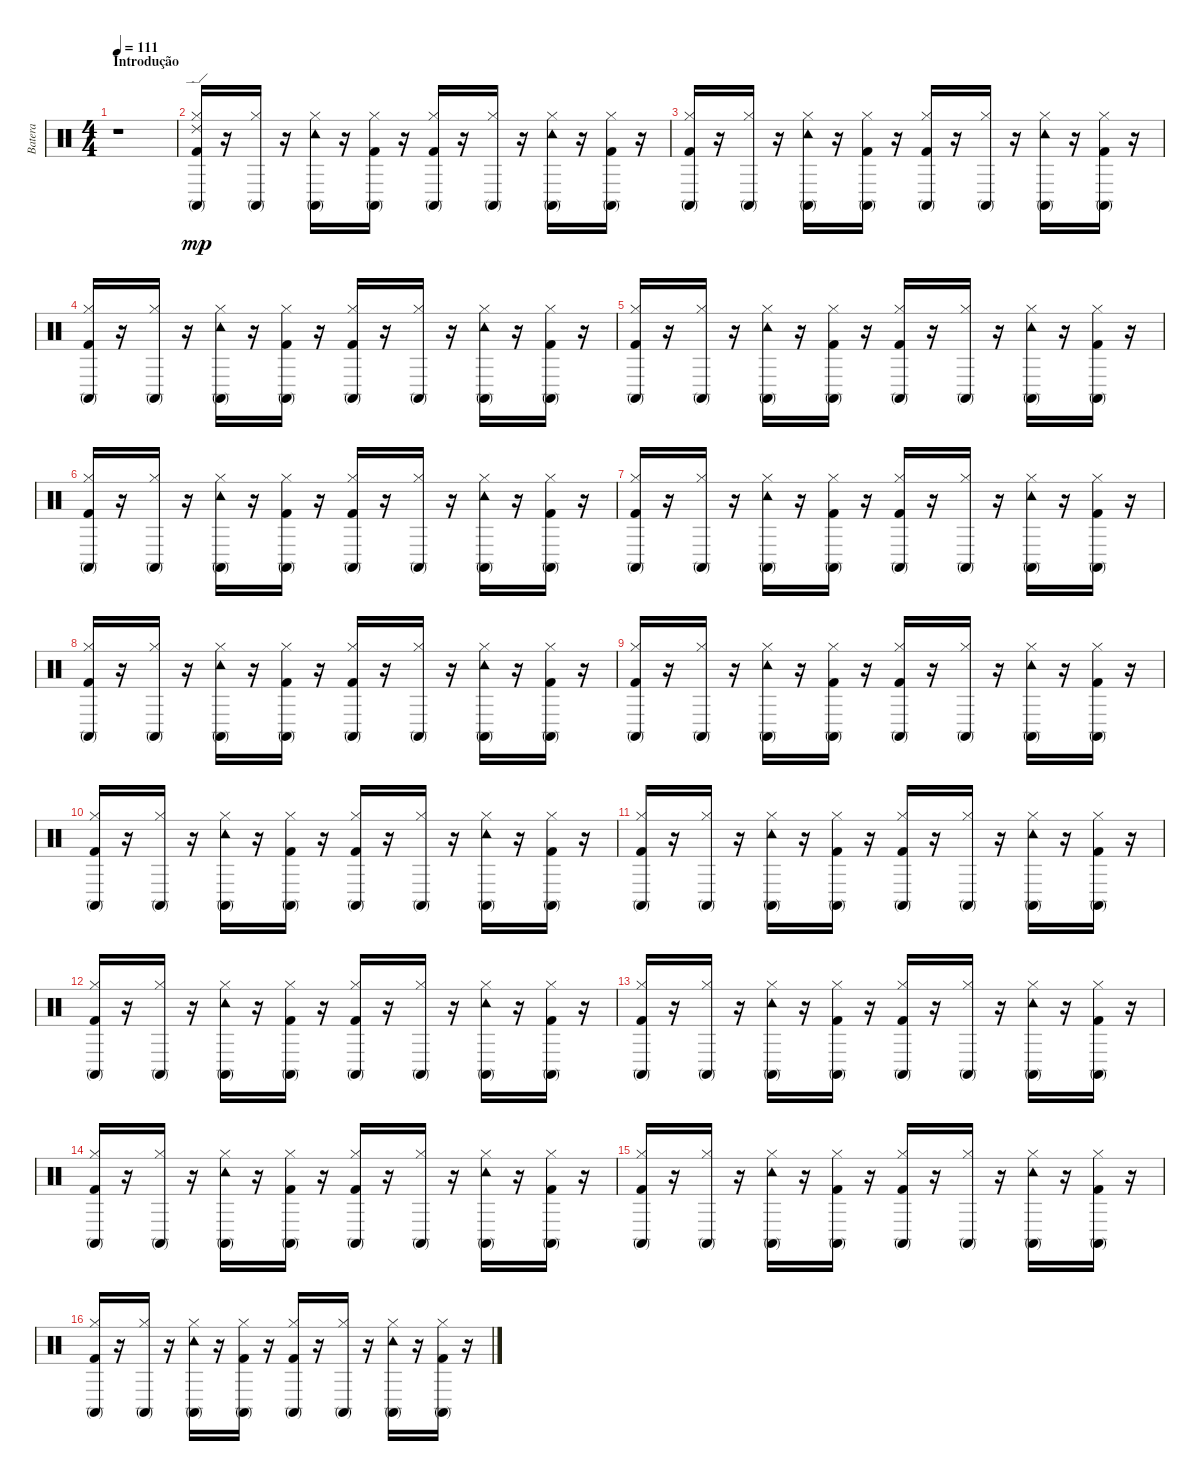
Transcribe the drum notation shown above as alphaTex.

\track ("Batera" "Batera") {instrument percussion}
\staff {score}
\articulation defaults
\ts (4 4)
\section ("" "Introdução")
\tempo 111
\clef neutral
\ks c
r.1{dy mp} |
("Hi-Hat (closed)" "Ride (edge) 2" "Conga high (mute)" "Kick (hit) 2").16 r.16 ("Hi-Hat (closed)" "Conga high (mute)").16 r.16 ("Hi-Hat (closed)" "Conga high (mute)" "Tambourine (hit)").16 r.16 ("Hi-Hat (closed)" "Conga high (mute)" "Kick (hit) 2").16 r.16 ("Hi-Hat (closed)" "Conga high (mute)" "Kick (hit) 2").16 r.16 ("Hi-Hat (closed)" "Conga high (mute)").16 r.16 ("Hi-Hat (closed)" "Conga high (mute)" "Tambourine (hit)").16 r.16 ("Hi-Hat (closed)" "Conga high (mute)" "Kick (hit) 2").16 r.16 |
("Hi-Hat (closed)" "Conga high (mute)" "Kick (hit) 2").16 r.16 ("Hi-Hat (closed)" "Conga high (mute)").16 r.16 ("Hi-Hat (closed)" "Conga high (mute)" "Tambourine (hit)").16 r.16 ("Hi-Hat (closed)" "Conga high (mute)" "Kick (hit) 2").16 r.16 ("Hi-Hat (closed)" "Conga high (mute)" "Kick (hit) 2").16 r.16 ("Hi-Hat (closed)" "Conga high (mute)").16 r.16 ("Hi-Hat (closed)" "Conga high (mute)" "Tambourine (hit)").16 r.16 ("Hi-Hat (closed)" "Conga high (mute)" "Kick (hit) 2").16 r.16 |
("Hi-Hat (closed)" "Conga high (mute)" "Kick (hit) 2").16 r.16 ("Hi-Hat (closed)" "Conga high (mute)").16 r.16 ("Hi-Hat (closed)" "Conga high (mute)" "Tambourine (hit)").16 r.16 ("Hi-Hat (closed)" "Conga high (mute)" "Kick (hit) 2").16 r.16 ("Hi-Hat (closed)" "Conga high (mute)" "Kick (hit) 2").16 r.16 ("Hi-Hat (closed)" "Conga high (mute)").16 r.16 ("Hi-Hat (closed)" "Conga high (mute)" "Tambourine (hit)").16 r.16 ("Hi-Hat (closed)" "Conga high (mute)" "Kick (hit) 2").16 r.16 |
("Hi-Hat (closed)" "Conga high (mute)" "Kick (hit) 2").16 r.16 ("Hi-Hat (closed)" "Conga high (mute)").16 r.16 ("Hi-Hat (closed)" "Conga high (mute)" "Tambourine (hit)").16 r.16 ("Hi-Hat (closed)" "Conga high (mute)" "Kick (hit) 2").16 r.16 ("Hi-Hat (closed)" "Conga high (mute)" "Kick (hit) 2").16 r.16 ("Hi-Hat (closed)" "Conga high (mute)").16 r.16 ("Hi-Hat (closed)" "Conga high (mute)" "Tambourine (hit)").16 r.16 ("Hi-Hat (closed)" "Conga high (mute)" "Kick (hit) 2").16 r.16 |
("Hi-Hat (closed)" "Conga high (mute)" "Kick (hit) 2").16 r.16 ("Hi-Hat (closed)" "Conga high (mute)").16 r.16 ("Hi-Hat (closed)" "Conga high (mute)" "Tambourine (hit)").16 r.16 ("Hi-Hat (closed)" "Conga high (mute)" "Kick (hit) 2").16 r.16 ("Hi-Hat (closed)" "Conga high (mute)" "Kick (hit) 2").16 r.16 ("Hi-Hat (closed)" "Conga high (mute)").16 r.16 ("Hi-Hat (closed)" "Conga high (mute)" "Tambourine (hit)").16 r.16 ("Hi-Hat (closed)" "Conga high (mute)" "Kick (hit) 2").16 r.16 |
("Hi-Hat (closed)" "Conga high (mute)" "Kick (hit) 2").16 r.16 ("Hi-Hat (closed)" "Conga high (mute)").16 r.16 ("Hi-Hat (closed)" "Conga high (mute)" "Tambourine (hit)").16 r.16 ("Hi-Hat (closed)" "Conga high (mute)" "Kick (hit) 2").16 r.16 ("Hi-Hat (closed)" "Conga high (mute)" "Kick (hit) 2").16 r.16 ("Hi-Hat (closed)" "Conga high (mute)").16 r.16 ("Hi-Hat (closed)" "Conga high (mute)" "Tambourine (hit)").16 r.16 ("Hi-Hat (closed)" "Conga high (mute)" "Kick (hit) 2").16 r.16 |
("Hi-Hat (closed)" "Conga high (mute)" "Kick (hit) 2").16 r.16 ("Hi-Hat (closed)" "Conga high (mute)").16 r.16 ("Hi-Hat (closed)" "Conga high (mute)" "Tambourine (hit)").16 r.16 ("Hi-Hat (closed)" "Conga high (mute)" "Kick (hit) 2").16 r.16 ("Hi-Hat (closed)" "Conga high (mute)" "Kick (hit) 2").16 r.16 ("Hi-Hat (closed)" "Conga high (mute)").16 r.16 ("Hi-Hat (closed)" "Conga high (mute)" "Tambourine (hit)").16 r.16 ("Hi-Hat (closed)" "Conga high (mute)" "Kick (hit) 2").16 r.16 |
("Hi-Hat (closed)" "Conga high (mute)" "Kick (hit) 2").16 r.16 ("Hi-Hat (closed)" "Conga high (mute)").16 r.16 ("Hi-Hat (closed)" "Conga high (mute)" "Tambourine (hit)").16 r.16 ("Hi-Hat (closed)" "Conga high (mute)" "Kick (hit) 2").16 r.16 ("Hi-Hat (closed)" "Conga high (mute)" "Kick (hit) 2").16 r.16 ("Hi-Hat (closed)" "Conga high (mute)").16 r.16 ("Hi-Hat (closed)" "Conga high (mute)" "Tambourine (hit)").16 r.16 ("Hi-Hat (closed)" "Conga high (mute)" "Kick (hit) 2").16 r.16 |
("Hi-Hat (closed)" "Conga high (mute)" "Kick (hit) 2").16 r.16 ("Hi-Hat (closed)" "Conga high (mute)").16 r.16 ("Hi-Hat (closed)" "Conga high (mute)" "Tambourine (hit)").16 r.16 ("Hi-Hat (closed)" "Conga high (mute)" "Kick (hit) 2").16 r.16 ("Hi-Hat (closed)" "Conga high (mute)" "Kick (hit) 2").16 r.16 ("Hi-Hat (closed)" "Conga high (mute)").16 r.16 ("Hi-Hat (closed)" "Conga high (mute)" "Tambourine (hit)").16 r.16 ("Hi-Hat (closed)" "Conga high (mute)" "Kick (hit) 2").16 r.16 |
("Hi-Hat (closed)" "Conga high (mute)" "Kick (hit) 2").16 r.16 ("Hi-Hat (closed)" "Conga high (mute)").16 r.16 ("Hi-Hat (closed)" "Conga high (mute)" "Tambourine (hit)").16 r.16 ("Hi-Hat (closed)" "Conga high (mute)" "Kick (hit) 2").16 r.16 ("Hi-Hat (closed)" "Conga high (mute)" "Kick (hit) 2").16 r.16 ("Hi-Hat (closed)" "Conga high (mute)").16 r.16 ("Hi-Hat (closed)" "Conga high (mute)" "Tambourine (hit)").16 r.16 ("Hi-Hat (closed)" "Conga high (mute)" "Kick (hit) 2").16 r.16 |
("Hi-Hat (closed)" "Conga high (mute)" "Kick (hit) 2").16 r.16 ("Hi-Hat (closed)" "Conga high (mute)").16 r.16 ("Hi-Hat (closed)" "Conga high (mute)" "Tambourine (hit)").16 r.16 ("Hi-Hat (closed)" "Conga high (mute)" "Kick (hit) 2").16 r.16 ("Hi-Hat (closed)" "Conga high (mute)" "Kick (hit) 2").16 r.16 ("Hi-Hat (closed)" "Conga high (mute)").16 r.16 ("Hi-Hat (closed)" "Conga high (mute)" "Tambourine (hit)").16 r.16 ("Hi-Hat (closed)" "Conga high (mute)" "Kick (hit) 2").16 r.16 |
("Hi-Hat (closed)" "Conga high (mute)" "Kick (hit) 2").16 r.16 ("Hi-Hat (closed)" "Conga high (mute)").16 r.16 ("Hi-Hat (closed)" "Conga high (mute)" "Tambourine (hit)").16 r.16 ("Hi-Hat (closed)" "Conga high (mute)" "Kick (hit) 2").16 r.16 ("Hi-Hat (closed)" "Conga high (mute)" "Kick (hit) 2").16 r.16 ("Hi-Hat (closed)" "Conga high (mute)").16 r.16 ("Hi-Hat (closed)" "Conga high (mute)" "Tambourine (hit)").16 r.16 ("Hi-Hat (closed)" "Conga high (mute)" "Kick (hit) 2").16 r.16 |
("Hi-Hat (closed)" "Conga high (mute)" "Kick (hit) 2").16 r.16 ("Hi-Hat (closed)" "Conga high (mute)").16 r.16 ("Hi-Hat (closed)" "Conga high (mute)" "Tambourine (hit)").16 r.16 ("Hi-Hat (closed)" "Conga high (mute)" "Kick (hit) 2").16 r.16 ("Hi-Hat (closed)" "Conga high (mute)" "Kick (hit) 2").16 r.16 ("Hi-Hat (closed)" "Conga high (mute)").16 r.16 ("Hi-Hat (closed)" "Conga high (mute)" "Tambourine (hit)").16 r.16 ("Hi-Hat (closed)" "Conga high (mute)" "Kick (hit) 2").16 r.16 |
("Hi-Hat (closed)" "Conga high (mute)" "Kick (hit) 2").16 r.16 ("Hi-Hat (closed)" "Conga high (mute)").16 r.16 ("Hi-Hat (closed)" "Conga high (mute)" "Tambourine (hit)").16 r.16 ("Hi-Hat (closed)" "Conga high (mute)" "Kick (hit) 2").16 r.16 ("Hi-Hat (closed)" "Conga high (mute)" "Kick (hit) 2").16 r.16 ("Hi-Hat (closed)" "Conga high (mute)").16 r.16 ("Hi-Hat (closed)" "Conga high (mute)" "Tambourine (hit)").16 r.16 ("Hi-Hat (closed)" "Conga high (mute)" "Kick (hit) 2").16 r.16 |
("Hi-Hat (closed)" "Conga high (mute)" "Kick (hit) 2").16 r.16 ("Hi-Hat (closed)" "Conga high (mute)").16 r.16 ("Hi-Hat (closed)" "Conga high (mute)" "Tambourine (hit)").16 r.16 ("Hi-Hat (closed)" "Conga high (mute)" "Kick (hit) 2").16 r.16 ("Hi-Hat (closed)" "Conga high (mute)" "Kick (hit) 2").16 r.16 ("Hi-Hat (closed)" "Conga high (mute)").16 r.16 ("Hi-Hat (closed)" "Conga high (mute)" "Tambourine (hit)").16 r.16 ("Hi-Hat (closed)" "Conga high (mute)" "Kick (hit) 2").16 r.16
